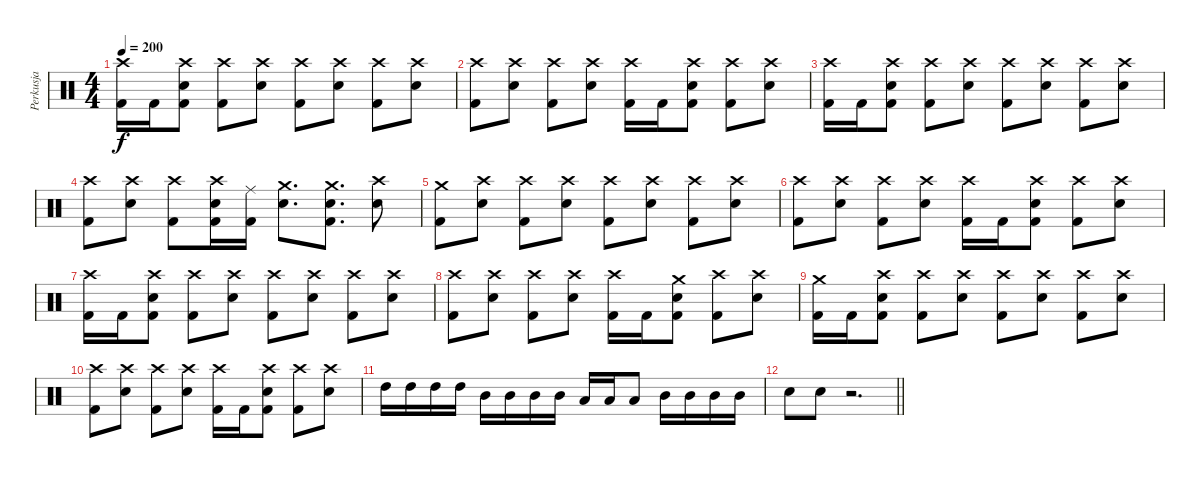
\track ("Perkusja" "Perkusja") {instrument percussion}
\staff {score}
\articulation defaults
\ts (4 4)
\tempo 200
\clef neutral
\ks c
("Crash high (hit)" "Kick (hit) 2").16{dy f} "Kick (hit) 2".16 ("Crash high (hit)" "Electric Snare (hit)" "Kick (hit) 2").8 ("Crash high (hit)" "Kick (hit) 2").8 ("Crash high (hit)" "Electric Snare (hit)").8 ("Crash high (hit)" "Kick (hit) 2").8 ("Crash high (hit)" "Electric Snare (hit)").8 ("Crash high (hit)" "Kick (hit) 2").8 ("Crash high (hit)" "Electric Snare (hit)").8 |
("Crash high (hit)" "Kick (hit) 2").8 ("Crash high (hit)" "Electric Snare (hit)").8 ("Crash high (hit)" "Kick (hit) 2").8 ("Crash high (hit)" "Electric Snare (hit)").8 ("Crash high (hit)" "Kick (hit) 2").16 "Kick (hit) 2".16 ("Crash high (hit)" "Electric Snare (hit)" "Kick (hit) 2").8 ("Crash high (hit)" "Kick (hit) 2").8 ("Crash high (hit)" "Electric Snare (hit)").8 |
("Crash high (hit)" "Kick (hit) 2").16 "Kick (hit) 2".16 ("Crash high (hit)" "Electric Snare (hit)" "Kick (hit) 2").8 ("Crash high (hit)" "Kick (hit) 2").8 ("Crash high (hit)" "Electric Snare (hit)").8 ("Crash high (hit)" "Kick (hit) 2").8 ("Crash high (hit)" "Electric Snare (hit)").8 ("Crash high (hit)" "Kick (hit) 2").8 ("Crash high (hit)" "Electric Snare (hit)").8 |
("Crash high (hit)" "Kick (hit) 2").8 ("Crash high (hit)" "Electric Snare (hit)").8 ("Crash high (hit)" "Kick (hit) 2").8 ("Crash high (hit)" "Electric Snare (hit)" "Kick (hit) 2").16 ("Ride (middle)" "Kick (hit) 2").16 ("Crash medium (hit)" "Electric Snare (hit)").8{d} ("Crash medium (hit)" "Electric Snare (hit)" "Kick (hit) 2").8{d} ("Crash high (hit)" "Electric Snare (hit)").8 |
("Crash medium (hit)" "Kick (hit) 2").8 ("Crash high (hit)" "Electric Snare (hit)").8 ("Crash high (hit)" "Kick (hit) 2").8 ("Crash high (hit)" "Electric Snare (hit)").8 ("Crash high (hit)" "Kick (hit) 2").8 ("Crash high (hit)" "Electric Snare (hit)").8 ("Crash high (hit)" "Kick (hit) 2").8 ("Crash high (hit)" "Electric Snare (hit)").8 |
("Crash high (hit)" "Kick (hit) 2").8 ("Crash high (hit)" "Electric Snare (hit)").8 ("Crash high (hit)" "Kick (hit) 2").8 ("Crash high (hit)" "Electric Snare (hit)").8 ("Crash high (hit)" "Kick (hit) 2").16 "Kick (hit) 2".16 ("Crash high (hit)" "Electric Snare (hit)" "Kick (hit) 2").8 ("Crash high (hit)" "Kick (hit) 2").8 ("Crash high (hit)" "Electric Snare (hit)").8 |
("Crash high (hit)" "Kick (hit) 2").16 "Kick (hit) 2".16 ("Crash high (hit)" "Electric Snare (hit)" "Kick (hit) 2").8 ("Crash high (hit)" "Kick (hit) 2").8 ("Crash high (hit)" "Electric Snare (hit)").8 ("Crash high (hit)" "Kick (hit) 2").8 ("Crash high (hit)" "Electric Snare (hit)").8 ("Crash high (hit)" "Kick (hit) 2").8 ("Crash high (hit)" "Electric Snare (hit)").8 |
("Crash high (hit)" "Kick (hit) 2").8 ("Crash high (hit)" "Electric Snare (hit)").8 ("Crash high (hit)" "Kick (hit) 2").8 ("Crash high (hit)" "Electric Snare (hit)").8 ("Crash high (hit)" "Kick (hit) 2").16 "Kick (hit) 2".16 ("Crash medium (hit)" "Electric Snare (hit)" "Kick (hit) 2").8 ("Crash high (hit)" "Kick (hit) 2").8 ("Crash high (hit)" "Electric Snare (hit)").8 |
("Crash medium (hit)" "Kick (hit) 2").16 "Kick (hit) 2".16 ("Crash high (hit)" "Electric Snare (hit)" "Kick (hit) 2").8 ("Crash high (hit)" "Kick (hit) 2").8 ("Crash high (hit)" "Electric Snare (hit)").8 ("Crash high (hit)" "Kick (hit) 2").8 ("Crash high (hit)" "Electric Snare (hit)").8 ("Crash high (hit)" "Kick (hit) 2").8 ("Crash high (hit)" "Electric Snare (hit)").8 |
("Crash high (hit)" "Kick (hit) 2").8 ("Crash high (hit)" "Electric Snare (hit)").8 ("Crash high (hit)" "Kick (hit) 2").8 ("Crash high (hit)" "Electric Snare (hit)").8 ("Crash high (hit)" "Kick (hit) 2").16 "Kick (hit) 2".16 ("Crash high (hit)" "Electric Snare (hit)" "Kick (hit) 2").8 ("Crash high (hit)" "Kick (hit) 2").8 ("Crash high (hit)" "Electric Snare (hit)").8 |
"High Tom (hit)".16 "High Tom (hit)".16 "High Tom (hit)".16 "High Tom (hit)".16 "Mid Tom (hit)".16 "Mid Tom (hit)".16 "Mid Tom (hit)".16 "Mid Tom (hit)".16 "Low Tom (hit)".16 "Low Tom (hit)".16 "Low Tom (hit)".8 "Mid Tom (hit)".16 "Mid Tom (hit)".16 "Mid Tom (hit)".16 "Mid Tom (hit)".16 |
\barLineRight lightlight "Electric Snare (hit)".8 "Electric Snare (hit)".8
r.2{d}
